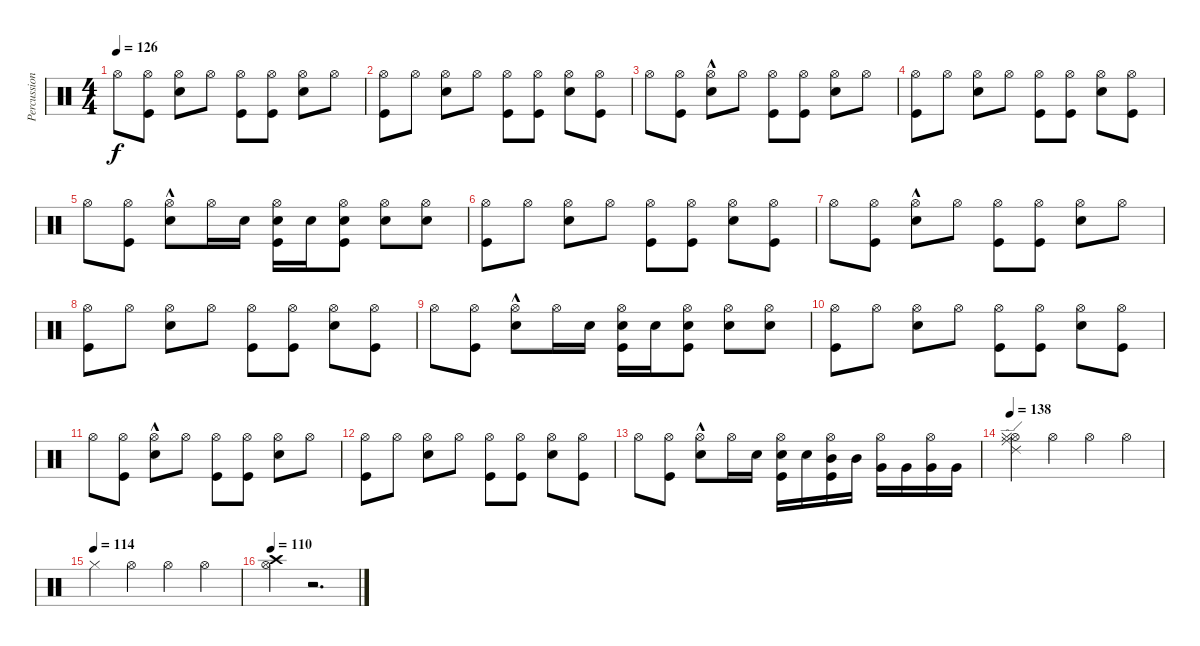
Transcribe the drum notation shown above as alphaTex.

\track ("Percussion" "Percussion") {instrument percussion}
\staff {score}
\articulation defaults
\ts (4 4)
\tempo 126
\clef neutral
\ks c "Hi-Hat (open)".8{dy f}
("Hi-Hat (open)" "Kick (hit)").8 ("Hi-Hat (open)" "Electric Snare (hit)").8 "Hi-Hat (open)".8 ("Hi-Hat (open)" "Kick (hit)").8 ("Hi-Hat (open)" "Kick (hit)").8 ("Hi-Hat (open)" "Electric Snare (hit)").8 "Hi-Hat (open)".8 |
("Hi-Hat (open)" "Kick (hit)").8 "Hi-Hat (open)".8 ("Electric Snare (hit)" "Hi-Hat (open)").8 "Hi-Hat (open)".8 ("Kick (hit)" "Hi-Hat (open)").8 ("Hi-Hat (open)" "Kick (hit)").8 ("Hi-Hat (open)" "Electric Snare (hit)").8 ("Kick (hit)" "Hi-Hat (open)").8 |
"Hi-Hat (open)".8 ("Kick (hit)" "Hi-Hat (open)").8 ("Electric Snare (hit)"{hac} "Hi-Hat (open)").8 "Hi-Hat (open)".8 ("Kick (hit)" "Hi-Hat (open)").8 ("Kick (hit)" "Hi-Hat (open)").8 ("Electric Snare (hit)" "Hi-Hat (open)").8 "Hi-Hat (open)".8 |
("Hi-Hat (open)" "Kick (hit)").8 "Hi-Hat (open)".8 ("Hi-Hat (open)" "Electric Snare (hit)").8 "Hi-Hat (open)".8 ("Hi-Hat (open)" "Kick (hit)").8 ("Hi-Hat (open)" "Kick (hit)").8 ("Hi-Hat (open)" "Electric Snare (hit)").8 ("Kick (hit)" "Hi-Hat (open)").8 |
"Hi-Hat (open)".8 ("Hi-Hat (open)" "Kick (hit)").8 ("Hi-Hat (open)" "Electric Snare (hit)"{hac}).8 "Hi-Hat (open)".16 "Electric Snare (hit)".16 ("Kick (hit)" "Electric Snare (hit)" "Hi-Hat (open)").16 "Electric Snare (hit)".16 ("Electric Snare (hit)" "Hi-Hat (open)" "Kick (hit)").8 ("Hi-Hat (open)" "Electric Snare (hit)").8 ("Electric Snare (hit)" "Hi-Hat (open)").8 |
("Hi-Hat (open)" "Kick (hit)").8 "Hi-Hat (open)".8 ("Electric Snare (hit)" "Hi-Hat (open)").8 "Hi-Hat (open)".8 ("Kick (hit)" "Hi-Hat (open)").8 ("Hi-Hat (open)" "Kick (hit)").8 ("Hi-Hat (open)" "Electric Snare (hit)").8 ("Kick (hit)" "Hi-Hat (open)").8 |
"Hi-Hat (open)".8 ("Kick (hit)" "Hi-Hat (open)").8 ("Electric Snare (hit)"{hac} "Hi-Hat (open)").8 "Hi-Hat (open)".8 ("Kick (hit)" "Hi-Hat (open)").8 ("Kick (hit)" "Hi-Hat (open)").8 ("Electric Snare (hit)" "Hi-Hat (open)").8 "Hi-Hat (open)".8 |
("Hi-Hat (open)" "Kick (hit)").8 "Hi-Hat (open)".8 ("Hi-Hat (open)" "Electric Snare (hit)").8 "Hi-Hat (open)".8 ("Hi-Hat (open)" "Kick (hit)").8 ("Hi-Hat (open)" "Kick (hit)").8 ("Hi-Hat (open)" "Electric Snare (hit)").8 ("Kick (hit)" "Hi-Hat (open)").8 |
"Hi-Hat (open)".8 ("Hi-Hat (open)" "Kick (hit)").8 ("Hi-Hat (open)" "Electric Snare (hit)"{hac}).8 "Hi-Hat (open)".16 "Electric Snare (hit)".16 ("Kick (hit)" "Electric Snare (hit)" "Hi-Hat (open)").16 "Electric Snare (hit)".16 ("Electric Snare (hit)" "Hi-Hat (open)" "Kick (hit)").8 ("Hi-Hat (open)" "Electric Snare (hit)").8 ("Electric Snare (hit)" "Hi-Hat (open)").8 |
("Hi-Hat (open)" "Kick (hit)").8 "Hi-Hat (open)".8 ("Electric Snare (hit)" "Hi-Hat (open)").8 "Hi-Hat (open)".8 ("Kick (hit)" "Hi-Hat (open)").8 ("Hi-Hat (open)" "Kick (hit)").8 ("Hi-Hat (open)" "Electric Snare (hit)").8 ("Kick (hit)" "Hi-Hat (open)").8 |
"Hi-Hat (open)".8 ("Kick (hit)" "Hi-Hat (open)").8 ("Electric Snare (hit)"{hac} "Hi-Hat (open)").8 "Hi-Hat (open)".8 ("Kick (hit)" "Hi-Hat (open)").8 ("Kick (hit)" "Hi-Hat (open)").8 ("Electric Snare (hit)" "Hi-Hat (open)").8 "Hi-Hat (open)".8 |
("Hi-Hat (open)" "Kick (hit)").8 "Hi-Hat (open)".8 ("Hi-Hat (open)" "Electric Snare (hit)").8 "Hi-Hat (open)".8 ("Hi-Hat (open)" "Kick (hit)").8 ("Hi-Hat (open)" "Kick (hit)").8 ("Hi-Hat (open)" "Electric Snare (hit)").8 ("Kick (hit)" "Hi-Hat (open)").8 |
"Hi-Hat (open)".8 ("Hi-Hat (open)" "Kick (hit)").8 ("Hi-Hat (open)" "Electric Snare (hit)"{hac}).8 "Hi-Hat (open)".16 "Electric Snare (hit)".16 ("Kick (hit)" "Electric Snare (hit)" "Hi-Hat (open)").16 "Electric Snare (hit)".16 ("Mid Tom (hit)" "Hi-Hat (open)" "Kick (hit)").16 "Mid Tom (hit)".16 ("Very Low Tom (hit)" "Hi-Hat (open)").16 "Very Low Tom (hit)".16 ("Hi-Hat (open)" "Very Low Tom (hit)").16 "Very Low Tom (hit)".16 |
\tempo 138
("Hi-Hat (open)" "Ride (edge) 2" "Ride (middle)" "Hi-Hat (closed)").4 "Hi-Hat (open)".4 "Hi-Hat (open)".4 "Hi-Hat (open)".4 |
\tempo (114)
"Hi-Hat (closed)".4 "Hi-Hat (open)".4 "Hi-Hat (open)".4 "Hi-Hat (open)".4 |
\tempo 110
("Hi-Hat (open)" "Crash high (hit)").4 r.2{d}
